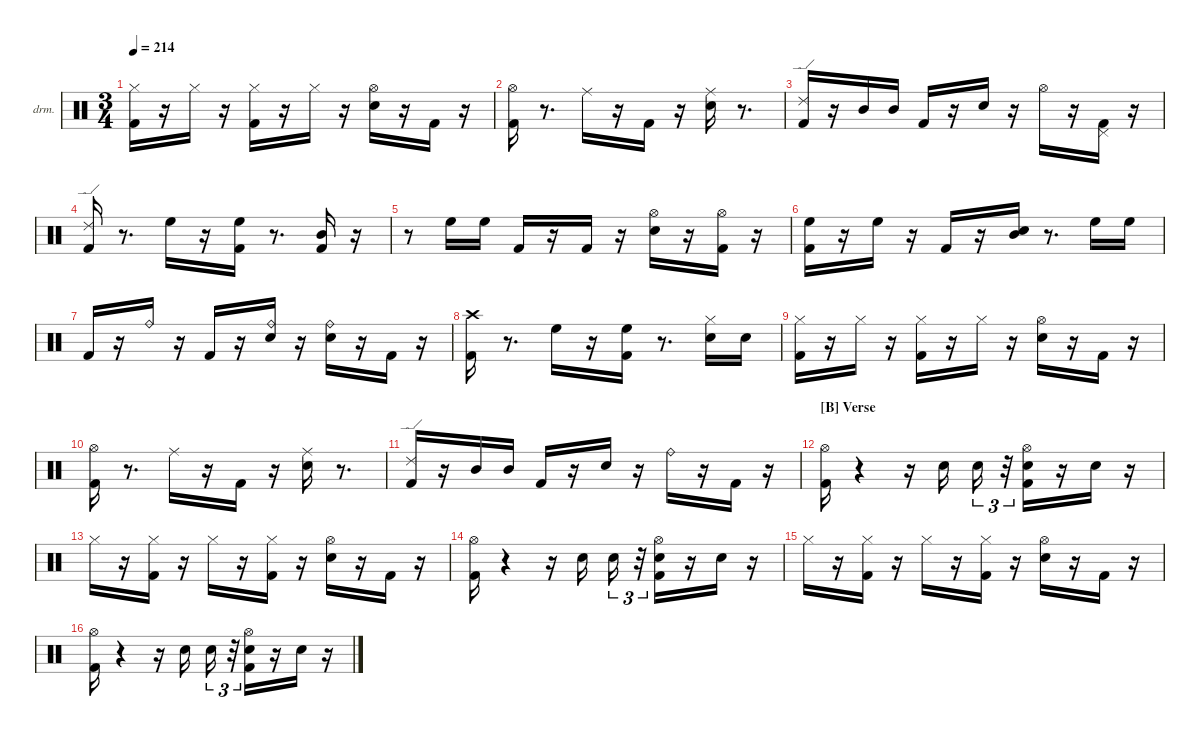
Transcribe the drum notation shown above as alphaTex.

\hideDynamics
\bracketExtendMode nobrackets
\firstSystemTrackNameOrientation horizontal
\otherSystemsTrackNameOrientation horizontal
\track ("EZdrummer 3" "drm.") {instrument percussion}
\staff {score}
\articulation defaults
\ts (3 4)
\tempo 214
\clef neutral
\ks aminor
("Kick (hit) 2" "Hi-Hat (closed)"{acc #}).16{dy ff beam Down} r.16{beam Down} "Hi-Hat (closed)"{acc #}.16{dy p beam Down} r.16{beam Down} ("Kick (hit) 2" "Hi-Hat (closed)"{acc #}).16{dy f beam Down} r.16{beam Down} "Hi-Hat (closed)"{acc #}.16{dy p beam Down} r.16{beam Down} ("Snare (hit) 2" "Hi-Hat (open)"{acc #}).16{dy ff beam Down} r.16{beam Down} "Kick (hit) 2".16{dy mf beam Up} r.16{beam Up} |
("Kick (hit) 2" "Hi-Hat (open)"{acc #}).16{dy fff beam Down} r.8{d beam Down} "Ride (middle)"{acc #}.16{dy ff beam Down} r.16{beam Down} "Kick (hit) 2".16{beam Up} r.16{beam Up} ("Snare (hit) 2" "Ride (middle)"{acc #}).16{beam Down} r.8{d beam Down} |
("Kick (hit) 2" "Ride (edge) 2").16{beam Up} r.16{beam Up} "Mid Tom (hit)".16{dy f beam Up} "Mid Tom (hit)".16{dy mp beam Up} "Kick (hit) 2".16{dy ff beam Up} r.16{beam Up} "Snare (hit) 2".16{beam Down} r.16{beam Down} "Hi-Hat (open)"{acc #}.16{dy fff beam Down} r.16{beam Down} ("Kick (hit) 2" "Pedal Hi-Hat (hit)"{acc #}).16{dy ff beam Up} r.16{beam Up} |
("Kick (hit) 2" "Ride (edge) 2").16{dy fff beam Up} r.8{d beam Up} "High Floor Tom (hit)".16{dy mf beam Down} r.16{beam Down} ("Kick (hit) 2" "High Floor Tom (hit)").16{dy fff beam Down} r.8{d beam Down} ("Kick (hit) 2" "Mid Tom (hit)").16{dy ff beam Up} r.16{beam Up} |
r.8{beam Down} "High Floor Tom (hit)".16{dy f beam Down} "High Floor Tom (hit)".16{dy mp beam Down} "Kick (hit) 2".16{dy mf beam Up} r.16{beam Up} "Kick (hit) 2".16{dy fff beam Up} r.16{beam Up} ("Snare (hit) 2" "Hi-Hat (open)"{acc #}).16{dy ff beam Down} r.16{beam Down} ("Kick (hit) 2" "Hi-Hat (open)"{acc #}).16{dy mp beam Down} r.16{beam Down} |
("Kick (hit) 2" "High Floor Tom (hit)").16{dy fff beam Down} r.16{beam Down} "High Floor Tom (hit)".16{dy mf beam Down} r.16{beam Down} "Kick (hit) 2".16{dy mp beam Up} r.16{beam Up} ("Snare (hit) 2" "Mid Tom (hit)").16{dy fff beam Down} r.8{d beam Down} "High Floor Tom (hit)".16{dy ff beam Down} "High Floor Tom (hit)".16{dy mf beam Down} |
"Kick (hit) 2".16{beam Up} r.16{beam Up} "Ride (bell)".16{dy fff beam Down} r.16{beam Down} "Kick (hit) 2".16{dy ff beam Up} r.16{beam Up} ("Snare (hit) 2" "Ride (bell)").16{dy mf beam Down} r.16{beam Down} ("Snare (hit) 2" "Ride (bell)").16{dy fff beam Down} r.16{beam Down} "Kick (hit) 2".16{dy mf beam Up} r.16{beam Up} |
("Kick (hit) 2" "Crash high (hit)"{acc #}).16{dy fff beam Down} r.8{d beam Down} "High Floor Tom (hit)".16{beam Down} r.16{beam Down} ("Kick (hit) 2" "High Floor Tom (hit)").16{dy f beam Down} r.8{d beam Down} ("Snare (hit) 2" "Hi-Hat (closed)"{acc #}).16{dy mf beam Down} "Snare (hit) 2".16{dy p beam Down} |
("Kick (hit) 2" "Hi-Hat (closed)"{acc #}).16{dy ff beam Down} r.16{beam Down} "Hi-Hat (closed)"{acc #}.16{dy p beam Down} r.16{beam Down} ("Kick (hit) 2" "Hi-Hat (closed)"{acc #}).16{dy f beam Down} r.16{beam Down} "Hi-Hat (closed)"{acc #}.16{dy p beam Down} r.16{beam Down} ("Snare (hit) 2" "Hi-Hat (open)"{acc #}).16{dy f beam Down} r.16{beam Down} "Kick (hit) 2".16{dy mf beam Up} r.16{beam Up} |
("Kick (hit) 2" "Hi-Hat (open)"{acc #}).16{dy fff beam Down} r.8{d beam Down} "Ride (middle)"{acc #}.16{dy ff beam Down} r.16{beam Down} "Kick (hit) 2".16{beam Up} r.16{beam Up} ("Snare (hit) 2" "Ride (middle)"{acc #}).16{beam Down} r.8{d beam Down} |
("Kick (hit) 2" "Ride (edge) 2").16{beam Up} r.16{beam Up} "Mid Tom (hit)".16{dy f beam Up} "Mid Tom (hit)".16{dy mp beam Up} "Kick (hit) 2".16{dy ff beam Up} r.16{beam Up} "Snare (hit) 2".16{beam Down} r.16{beam Down} "Ride (bell)".16{dy fff beam Down} r.16{beam Down} "Kick (hit) 2".16{dy mf beam Up} r.16{beam Up} |
\section ("B" "Verse")
("Kick (hit) 2" "Hi-Hat (open)"{acc #}).16{dy ff beam Down} r.4{beam Down} r.16{beam Down} "Snare (hit) 2".16{dy f beam Down} "Snare (hit) 2".16{tu (3 2) dy p beam Down} r.32{tu (3 2) beam Down} ("Kick (hit) 2" "Snare (hit) 2" "Hi-Hat (open)"{acc #}).16{dy f beam Down} r.16{beam Down} "Snare (hit) 2".16{dy fff beam Down} r.16{beam Down} |
"Hi-Hat (closed)"{acc #}.16{dy f beam Down} r.16{beam Down} ("Kick (hit) 2" "Hi-Hat (closed)"{acc #}).16{dy ff beam Down} r.16{beam Down} "Hi-Hat (closed)"{acc #}.16{dy pp beam Down} r.16{beam Down} ("Kick (hit) 2" "Hi-Hat (closed)"{acc #}).16{dy f beam Down} r.16{beam Down} ("Snare (hit) 2" "Hi-Hat (open)"{acc #}).16{dy ff beam Down} r.16{beam Down} "Kick (hit) 2".16{dy mf beam Up} r.16{beam Up} |
("Kick (hit) 2" "Hi-Hat (open)"{acc #}).16{dy ff beam Down} r.4{beam Down} r.16{beam Down} "Snare (hit) 2".16{dy f beam Down} "Snare (hit) 2".16{tu (3 2) dy p beam Down} r.32{tu (3 2) beam Down} ("Kick (hit) 2" "Snare (hit) 2" "Hi-Hat (open)"{acc #}).16{dy f beam Down} r.16{beam Down} "Snare (hit) 2".16{dy fff beam Down} r.16{beam Down} |
"Hi-Hat (closed)"{acc #}.16{dy f beam Down} r.16{beam Down} ("Kick (hit) 2" "Hi-Hat (closed)"{acc #}).16{dy ff beam Down} r.16{beam Down} "Hi-Hat (closed)"{acc #}.16{dy pp beam Down} r.16{beam Down} ("Kick (hit) 2" "Hi-Hat (closed)"{acc #}).16{dy f beam Down} r.16{beam Down} ("Snare (hit) 2" "Hi-Hat (open)"{acc #}).16{dy ff beam Down} r.16{beam Down} "Kick (hit) 2".16{dy mf beam Up} r.16{beam Up} |
("Kick (hit) 2" "Hi-Hat (open)"{acc #}).16{dy ff beam Down} r.4{beam Down} r.16{beam Down} "Snare (hit) 2".16{dy f beam Down} "Snare (hit) 2".16{tu (3 2) dy p beam Down} r.32{tu (3 2) beam Down} ("Kick (hit) 2" "Snare (hit) 2" "Hi-Hat (open)"{acc #}).16{dy f beam Down} r.16{beam Down} "Snare (hit) 2".16{dy fff beam Down} r.16{beam Down}
